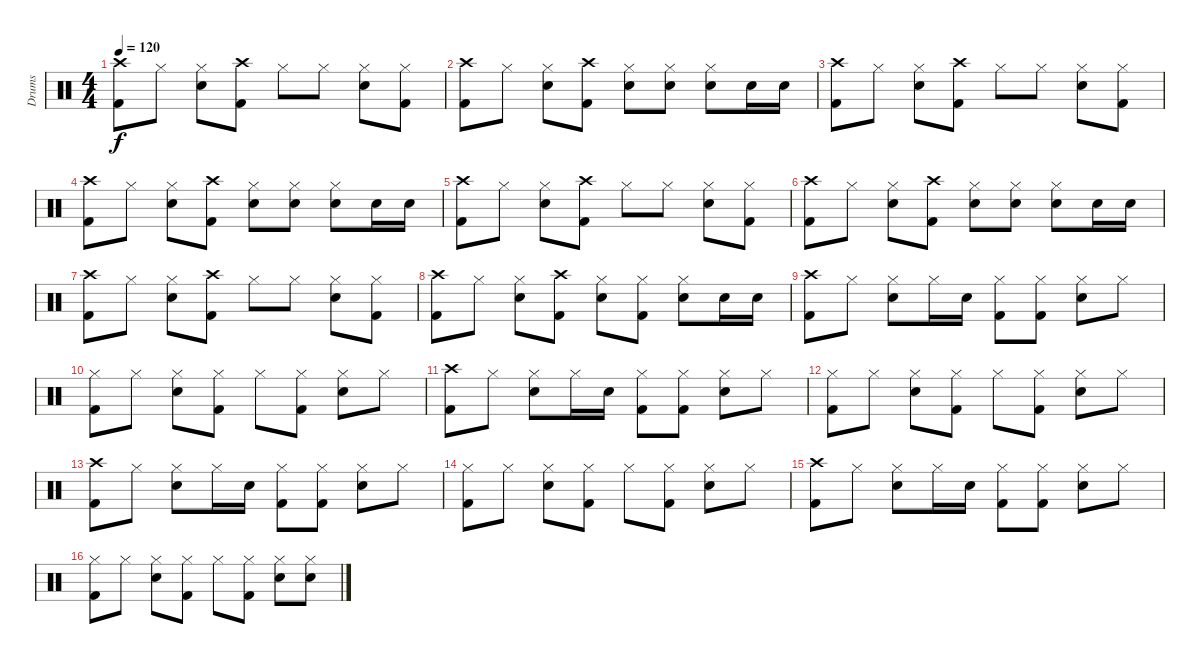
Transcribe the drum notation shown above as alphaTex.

\track ("Drums" "Drums") {instrument percussion}
\staff {score}
\articulation defaults
\ts (4 4)
\tempo 120
\clef neutral
\ks c
("Crash high (hit)" "Kick (hit) 2").8{dy f} "Hi-Hat (closed)".8 ("Hi-Hat (closed)" "Snare (hit) 2").8 ("Crash high (hit)" "Kick (hit) 2").8 "Hi-Hat (closed)".8 "Hi-Hat (closed)".8 ("Hi-Hat (closed)" "Snare (hit) 2").8 ("Hi-Hat (closed)" "Kick (hit) 2").8 |
("Crash high (hit)" "Kick (hit) 2").8 "Hi-Hat (closed)".8 ("Hi-Hat (closed)" "Snare (hit) 2").8 ("Crash high (hit)" "Kick (hit) 2").8 ("Hi-Hat (closed)" "Snare (hit) 2").8 ("Hi-Hat (closed)" "Snare (hit) 2").8 ("Hi-Hat (closed)" "Snare (hit) 2").8 "Snare (hit) 2".16 "Snare (hit) 2".16 |
("Crash high (hit)" "Kick (hit) 2").8 "Hi-Hat (closed)".8 ("Hi-Hat (closed)" "Snare (hit) 2").8 ("Crash high (hit)" "Kick (hit) 2").8 "Hi-Hat (closed)".8 "Hi-Hat (closed)".8 ("Hi-Hat (closed)" "Snare (hit) 2").8 ("Hi-Hat (closed)" "Kick (hit) 2").8 |
("Crash high (hit)" "Kick (hit) 2").8 "Hi-Hat (closed)".8 ("Hi-Hat (closed)" "Snare (hit) 2").8 ("Crash high (hit)" "Kick (hit) 2").8 ("Hi-Hat (closed)" "Snare (hit) 2").8 ("Hi-Hat (closed)" "Snare (hit) 2").8 ("Hi-Hat (closed)" "Snare (hit) 2").8 "Snare (hit) 2".16 "Snare (hit) 2".16 |
("Crash high (hit)" "Kick (hit) 2").8 "Hi-Hat (closed)".8 ("Hi-Hat (closed)" "Snare (hit) 2").8 ("Crash high (hit)" "Kick (hit) 2").8 "Hi-Hat (closed)".8 "Hi-Hat (closed)".8 ("Hi-Hat (closed)" "Snare (hit) 2").8 ("Hi-Hat (closed)" "Kick (hit) 2").8 |
("Crash high (hit)" "Kick (hit) 2").8 "Hi-Hat (closed)".8 ("Hi-Hat (closed)" "Snare (hit) 2").8 ("Crash high (hit)" "Kick (hit) 2").8 ("Hi-Hat (closed)" "Snare (hit) 2").8 ("Hi-Hat (closed)" "Snare (hit) 2").8 ("Hi-Hat (closed)" "Snare (hit) 2").8 "Snare (hit) 2".16 "Snare (hit) 2".16 |
("Crash high (hit)" "Kick (hit) 2").8 "Hi-Hat (closed)".8 ("Hi-Hat (closed)" "Snare (hit) 2").8 ("Crash high (hit)" "Kick (hit) 2").8 "Hi-Hat (closed)".8 "Hi-Hat (closed)".8 ("Hi-Hat (closed)" "Snare (hit) 2").8 ("Hi-Hat (closed)" "Kick (hit) 2").8 |
("Crash high (hit)" "Kick (hit) 2").8 "Hi-Hat (closed)".8 ("Hi-Hat (closed)" "Snare (hit) 2").8 ("Crash high (hit)" "Kick (hit) 2").8 ("Hi-Hat (closed)" "Snare (hit) 2").8 ("Hi-Hat (closed)" "Kick (hit) 2").8 ("Hi-Hat (closed)" "Snare (hit) 2").8 "Snare (hit) 2".16 "Snare (hit) 2".16 |
("Crash high (hit)" "Kick (hit) 2").8 "Hi-Hat (closed)".8 ("Hi-Hat (closed)" "Snare (hit) 2").8 "Hi-Hat (closed)".16 "Snare (hit) 2".16 ("Hi-Hat (closed)" "Kick (hit) 2").8 ("Hi-Hat (closed)" "Kick (hit) 2").8 ("Hi-Hat (closed)" "Snare (hit) 2").8 "Hi-Hat (closed)".8 |
("Hi-Hat (closed)" "Kick (hit) 2").8 "Hi-Hat (closed)".8 ("Hi-Hat (closed)" "Snare (hit) 2").8 ("Hi-Hat (closed)" "Kick (hit) 2").8 "Hi-Hat (closed)".8 ("Hi-Hat (closed)" "Kick (hit) 2").8 ("Hi-Hat (closed)" "Snare (hit) 2").8 "Hi-Hat (closed)".8 |
("Crash high (hit)" "Kick (hit) 2").8 "Hi-Hat (closed)".8 ("Hi-Hat (closed)" "Snare (hit) 2").8 "Hi-Hat (closed)".16 "Snare (hit) 2".16 ("Hi-Hat (closed)" "Kick (hit) 2").8 ("Hi-Hat (closed)" "Kick (hit) 2").8 ("Hi-Hat (closed)" "Snare (hit) 2").8 "Hi-Hat (closed)".8 |
("Hi-Hat (closed)" "Kick (hit) 2").8 "Hi-Hat (closed)".8 ("Hi-Hat (closed)" "Snare (hit) 2").8 ("Hi-Hat (closed)" "Kick (hit) 2").8 "Hi-Hat (closed)".8 ("Hi-Hat (closed)" "Kick (hit) 2").8 ("Hi-Hat (closed)" "Snare (hit) 2").8 "Hi-Hat (closed)".8 |
("Crash high (hit)" "Kick (hit) 2").8 "Hi-Hat (closed)".8 ("Hi-Hat (closed)" "Snare (hit) 2").8 "Hi-Hat (closed)".16 "Snare (hit) 2".16 ("Hi-Hat (closed)" "Kick (hit) 2").8 ("Hi-Hat (closed)" "Kick (hit) 2").8 ("Hi-Hat (closed)" "Snare (hit) 2").8 "Hi-Hat (closed)".8 |
("Hi-Hat (closed)" "Kick (hit) 2").8 "Hi-Hat (closed)".8 ("Hi-Hat (closed)" "Snare (hit) 2").8 ("Hi-Hat (closed)" "Kick (hit) 2").8 "Hi-Hat (closed)".8 ("Hi-Hat (closed)" "Kick (hit) 2").8 ("Hi-Hat (closed)" "Snare (hit) 2").8 "Hi-Hat (closed)".8 |
("Crash high (hit)" "Kick (hit) 2").8 "Hi-Hat (closed)".8 ("Hi-Hat (closed)" "Snare (hit) 2").8 "Hi-Hat (closed)".16 "Snare (hit) 2".16 ("Hi-Hat (closed)" "Kick (hit) 2").8 ("Hi-Hat (closed)" "Kick (hit) 2").8 ("Hi-Hat (closed)" "Snare (hit) 2").8 "Hi-Hat (closed)".8 |
("Hi-Hat (closed)" "Kick (hit) 2").8 "Hi-Hat (closed)".8 ("Hi-Hat (closed)" "Snare (hit) 2").8 ("Hi-Hat (closed)" "Kick (hit) 2").8 "Hi-Hat (closed)".8 ("Hi-Hat (closed)" "Kick (hit) 2").8 ("Hi-Hat (closed)" "Snare (hit) 2").8 ("Hi-Hat (closed)" "Snare (hit) 2").8
